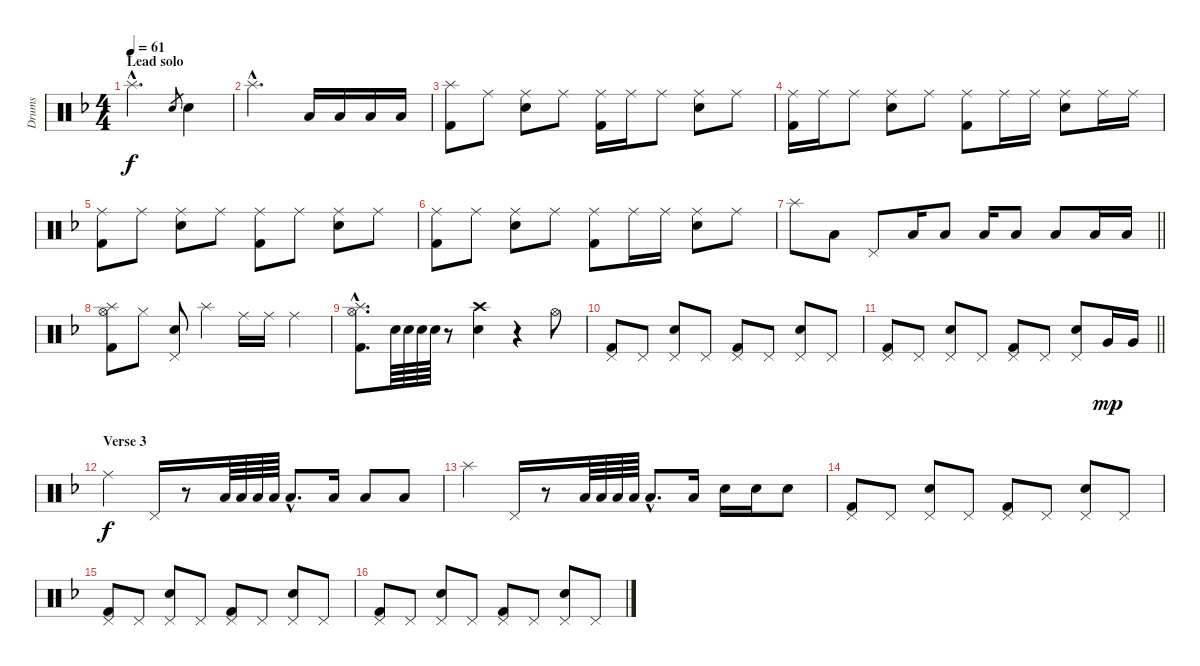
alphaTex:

\track ("Drums" "Drums") {instrument percussion}
\staff {score}
\articulation defaults
\ts (4 4)
\section ("" "Lead solo")
\tempo 61
\clef neutral
\ks f "Splash (hit)"{hac}.2{d dy f} "Snare (hit) 2".8{gr} "Snare (hit) 2".4
|
"Splash (hit)"{hac}.2{d} "Low Tom (hit)".16 "Low Tom (hit)".16 "Low Tom (hit)".16 "Low Tom (hit)".16 |
("Splash (hit)" "Kick (hit) 2").8 "Ride (middle)".8 ("Ride (middle)" "Snare (hit) 2").8 "Ride (middle)".8 ("Ride (middle)" "Kick (hit) 2").16 "Ride (middle)".16 "Ride (middle)".8 ("Ride (middle)" "Snare (hit) 2").8 "Ride (middle)".8 |
("Ride (middle)" "Kick (hit) 2").16 "Ride (middle)".16 "Ride (middle)".8 ("Ride (middle)" "Snare (hit) 2").8 "Ride (middle)".8 ("Ride (middle)" "Kick (hit) 2").8 "Ride (middle)".16 "Ride (middle)".16 ("Ride (middle)" "Snare (hit) 2").8 "Ride (middle)".16 "Ride (middle)".16 |
("Ride (middle)" "Kick (hit) 2").8 "Ride (middle)".8 ("Ride (middle)" "Snare (hit) 2").8 "Ride (middle)".8 ("Ride (middle)" "Kick (hit) 2").8 "Ride (middle)".8 ("Ride (middle)" "Snare (hit) 2").8 "Ride (middle)".8 |
("Ride (middle)" "Kick (hit) 2").8 "Ride (middle)".8 ("Ride (middle)" "Snare (hit) 2").8 "Ride (middle)".8 ("Ride (middle)" "Kick (hit) 2").8 "Ride (middle)".16 "Ride (middle)".16 ("Ride (middle)" "Snare (hit) 2").8 "Ride (middle)".8 |
\barLineRight lightlight "Splash (hit)".8 "Low Tom (hit)".8 "Pedal Hi-Hat (hit)".8 "Low Tom (hit)".16 "Low Tom (hit)".8 "Low Tom (hit)".16 "Low Tom (hit)".8 "Low Tom (hit)".8 "Low Floor Tom (hit)".16 "Low Floor Tom (hit)".16
|
("Splash (hit)" "Hi-Hat (open)" "Kick (hit) 2").8 "Hi-Hat (closed)".8 ("Pedal Hi-Hat (hit)" "Snare (hit) 2").8 "Splash (hit)".4 "Ride (middle)".16 "Ride (middle)".16 "Ride (middle)".4 |
("Splash (hit)"{hac} "Hi-Hat (open)"{hac} "Kick (hit) 2"{hac}).8{d} "Snare (hit) 2".64 "Snare (hit) 2".64 "Snare (hit) 2".64 "Snare (hit) 2".64 r.8 ("Crash high (hit)" "Snare (hit) 2").4 r.4 "Hi-Hat (open)".8 |
("Pedal Hi-Hat (hit)" "Kick (hit) 2").8 "Pedal Hi-Hat (hit)".8 ("Pedal Hi-Hat (hit)" "Snare (hit) 2").8 "Pedal Hi-Hat (hit)".8 ("Pedal Hi-Hat (hit)" "Kick (hit) 2").8 "Pedal Hi-Hat (hit)".8 ("Pedal Hi-Hat (hit)" "Snare (hit) 2").8 "Pedal Hi-Hat (hit)".8 |
\barLineRight lightlight
("Pedal Hi-Hat (hit)" "Kick (hit) 2").8 "Pedal Hi-Hat (hit)".8 ("Pedal Hi-Hat (hit)" "Snare (hit) 2").8 "Pedal Hi-Hat (hit)".8 ("Pedal Hi-Hat (hit)" "Kick (hit) 2").8 "Pedal Hi-Hat (hit)".8 ("Pedal Hi-Hat (hit)" "Snare (hit) 2").8 "Very Low Tom (hit)".16{dy mp} "Very Low Tom (hit)".16 |
\section ("" "Verse 3")
"Ride (middle)".4{dy f} "Pedal Hi-Hat (hit)".16 r.8 "Low Floor Tom (hit)".64 "Low Floor Tom (hit)".64 "Low Floor Tom (hit)".64 "Low Floor Tom (hit)".64 "Low Floor Tom (hit)"{hac}.8{d} "Low Floor Tom (hit)".16 "Low Floor Tom (hit)".8 "Low Floor Tom (hit)".8 |
"Splash (hit)".4 "Pedal Hi-Hat (hit)".16 r.8 "Low Floor Tom (hit)".64 "Low Floor Tom (hit)".64 "Low Floor Tom (hit)".64 "Low Floor Tom (hit)".64 "Low Floor Tom (hit)"{hac}.8{d} "Low Floor Tom (hit)".16 "Snare (hit) 2".16 "Snare (hit) 2".16 "Snare (hit) 2".8 |
("Pedal Hi-Hat (hit)" "Kick (hit) 2").8 "Pedal Hi-Hat (hit)".8 ("Pedal Hi-Hat (hit)" "Snare (hit) 2").8 "Pedal Hi-Hat (hit)".8 ("Pedal Hi-Hat (hit)" "Kick (hit) 2").8 "Pedal Hi-Hat (hit)".8 ("Pedal Hi-Hat (hit)" "Snare (hit) 2").8 "Pedal Hi-Hat (hit)".8 |
("Pedal Hi-Hat (hit)" "Kick (hit) 2").8 "Pedal Hi-Hat (hit)".8 ("Pedal Hi-Hat (hit)" "Snare (hit) 2").8 "Pedal Hi-Hat (hit)".8 ("Pedal Hi-Hat (hit)" "Kick (hit) 2").8 "Pedal Hi-Hat (hit)".8 ("Pedal Hi-Hat (hit)" "Snare (hit) 2").8 "Pedal Hi-Hat (hit)".8 |
("Pedal Hi-Hat (hit)" "Kick (hit) 2").8 "Pedal Hi-Hat (hit)".8 ("Pedal Hi-Hat (hit)" "Snare (hit) 2").8 "Pedal Hi-Hat (hit)".8 ("Pedal Hi-Hat (hit)" "Kick (hit) 2").8 "Pedal Hi-Hat (hit)".8 ("Pedal Hi-Hat (hit)" "Snare (hit) 2").8 "Pedal Hi-Hat (hit)".8
